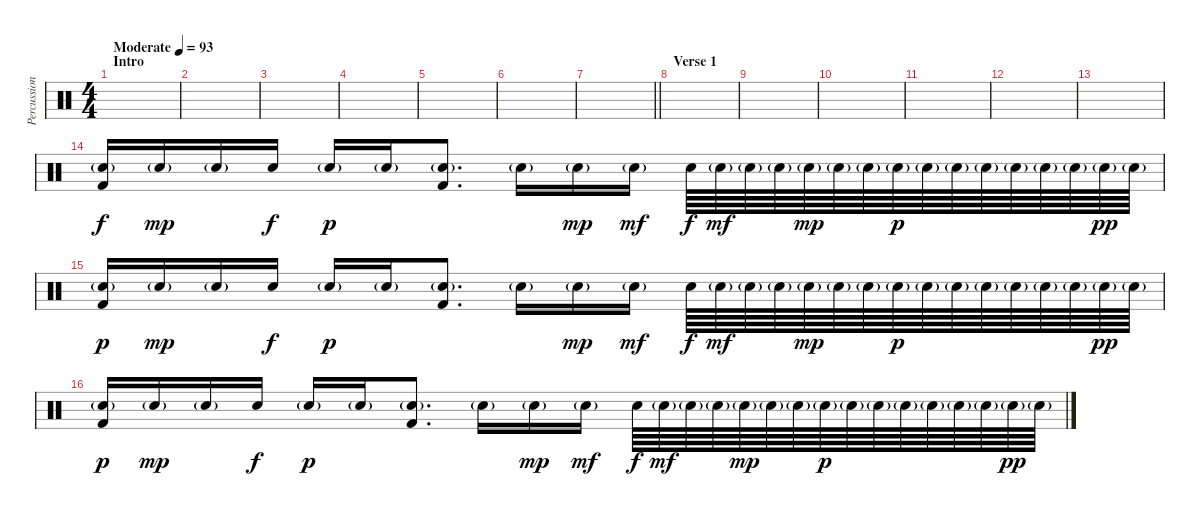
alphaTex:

\track ("Percussion" "Percussion") {instrument percussion}
\staff {score}
\articulation defaults
\ts (4 4)
\section ("" "Intro")
\tempo (93 "Moderate")
\clef neutral
\ks c
|
|
|
|
|
|
\barLineRight lightlight
|
\section ("" "Verse 1")
|
|
|
|
|
|
("Snare (hit) 2"{g} "Kick (hit) 2").16 "Snare (hit) 2"{g}.16{dy mp} "Snare (hit) 2"{g}.16 "Snare (hit) 2".16{dy f} "Snare (hit) 2"{g}.16{dy p} "Snare (hit) 2"{g}.16 ("Snare (hit) 2"{g} "Kick (hit) 2").8{d} "Snare (hit) 2"{g}.16 "Snare (hit) 2"{g}.16{dy mp} "Snare (hit) 2"{g}.16{dy mf} "Snare (hit) 2".64{dy f} "Snare (hit) 2"{g}.64{dy mf} "Snare (hit) 2"{g}.64 "Snare (hit) 2"{g}.64 "Snare (hit) 2"{g}.64{dy mp} "Snare (hit) 2"{g}.64 "Snare (hit) 2"{g}.64 "Snare (hit) 2"{g}.64{dy p} "Snare (hit) 2"{g}.64 "Snare (hit) 2"{g}.64 "Snare (hit) 2"{g}.64 "Snare (hit) 2"{g}.64 "Snare (hit) 2"{g}.64 "Snare (hit) 2"{g}.64 "Snare (hit) 2"{g}.64{dy pp} "Snare (hit) 2"{g}.64 |
("Snare (hit) 2"{g} "Kick (hit) 2").16{dy p} "Snare (hit) 2"{g}.16{dy mp} "Snare (hit) 2"{g}.16 "Snare (hit) 2".16{dy f} "Snare (hit) 2"{g}.16{dy p} "Snare (hit) 2"{g}.16 ("Snare (hit) 2"{g} "Kick (hit) 2").8{d} "Snare (hit) 2"{g}.16 "Snare (hit) 2"{g}.16{dy mp} "Snare (hit) 2"{g}.16{dy mf} "Snare (hit) 2".64{dy f} "Snare (hit) 2"{g}.64{dy mf} "Snare (hit) 2"{g}.64 "Snare (hit) 2"{g}.64 "Snare (hit) 2"{g}.64{dy mp} "Snare (hit) 2"{g}.64 "Snare (hit) 2"{g}.64 "Snare (hit) 2"{g}.64{dy p} "Snare (hit) 2"{g}.64 "Snare (hit) 2"{g}.64 "Snare (hit) 2"{g}.64 "Snare (hit) 2"{g}.64 "Snare (hit) 2"{g}.64 "Snare (hit) 2"{g}.64 "Snare (hit) 2"{g}.64{dy pp} "Snare (hit) 2"{g}.64 |
("Snare (hit) 2"{g} "Kick (hit) 2").16{dy p} "Snare (hit) 2"{g}.16{dy mp} "Snare (hit) 2"{g}.16 "Snare (hit) 2".16{dy f} "Snare (hit) 2"{g}.16{dy p} "Snare (hit) 2"{g}.16 ("Snare (hit) 2"{g} "Kick (hit) 2").8{d} "Snare (hit) 2"{g}.16 "Snare (hit) 2"{g}.16{dy mp} "Snare (hit) 2"{g}.16{dy mf} "Snare (hit) 2".64{dy f} "Snare (hit) 2"{g}.64{dy mf} "Snare (hit) 2"{g}.64 "Snare (hit) 2"{g}.64 "Snare (hit) 2"{g}.64{dy mp} "Snare (hit) 2"{g}.64 "Snare (hit) 2"{g}.64 "Snare (hit) 2"{g}.64{dy p} "Snare (hit) 2"{g}.64 "Snare (hit) 2"{g}.64 "Snare (hit) 2"{g}.64 "Snare (hit) 2"{g}.64 "Snare (hit) 2"{g}.64 "Snare (hit) 2"{g}.64 "Snare (hit) 2"{g}.64{dy pp} "Snare (hit) 2"{g}.64
